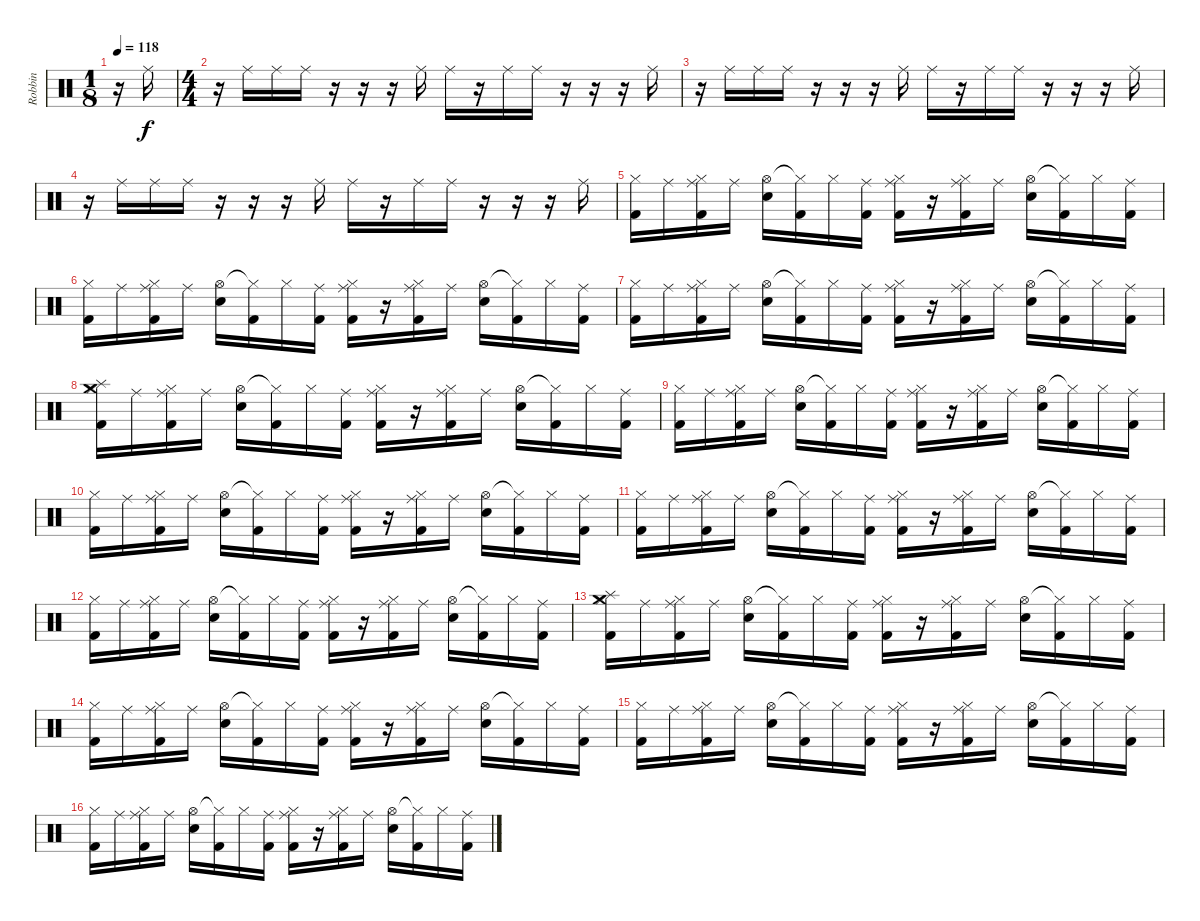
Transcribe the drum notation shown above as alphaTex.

\track ("Robbin" "Robbin") {instrument percussion}
\staff {score}
\articulation defaults
\ts (1 8)
\tempo 118
\clef neutral
\ks c
r.16{dy f} "Ride (middle)".16 |
\ts (4 4)
r.16 "Ride (middle)".16 "Ride (middle)".16 "Ride (middle)".16 r.16 r.16 r.16 "Ride (middle)".16 "Ride (middle)".16 r.16 "Ride (middle)".16 "Ride (middle)".16 r.16 r.16 r.16 "Ride (middle)".16 |
r.16 "Ride (middle)".16 "Ride (middle)".16 "Ride (middle)".16 r.16 r.16 r.16 "Ride (middle)".16 "Ride (middle)".16 r.16 "Ride (middle)".16 "Ride (middle)".16 r.16 r.16 r.16 "Ride (middle)".16 |
r.16 "Ride (middle)".16 "Ride (middle)".16 "Ride (middle)".16 r.16 r.16 r.16 "Ride (middle)".16 "Ride (middle)".16 r.16 "Ride (middle)".16 "Ride (middle)".16 r.16 r.16 r.16 "Ride (middle)".16 |
("Hi-Hat (closed)" "Kick (hit) 2").16 "Ride (middle)".16 ("Hi-Hat (closed)" "Ride (middle)" "Kick (hit) 2").16 "Ride (middle)".16 ("Hi-Hat (open)" "Snare (hit) 2").16 ("Hi-Hat (closed)"{t} "Kick (hit) 2").16 "Hi-Hat (closed)".16 ("Ride (middle)" "Kick (hit) 2").16 ("Hi-Hat (closed)" "Ride (middle)" "Kick (hit) 2").16 r.16 ("Hi-Hat (closed)" "Ride (middle)" "Kick (hit) 2").16 "Ride (middle)".16 ("Hi-Hat (open)" "Snare (hit) 2").16 ("Hi-Hat (closed)"{t} "Kick (hit) 2").16 "Hi-Hat (closed)".16 ("Ride (middle)" "Kick (hit) 2").16 |
("Hi-Hat (closed)" "Kick (hit) 2").16 "Ride (middle)".16 ("Hi-Hat (closed)" "Ride (middle)" "Kick (hit) 2").16 "Ride (middle)".16 ("Hi-Hat (open)" "Snare (hit) 2").16 ("Hi-Hat (closed)"{t} "Kick (hit) 2").16 "Hi-Hat (closed)".16 ("Ride (middle)" "Kick (hit) 2").16 ("Hi-Hat (closed)" "Ride (middle)" "Kick (hit) 2").16 r.16 ("Hi-Hat (closed)" "Ride (middle)" "Kick (hit) 2").16 "Ride (middle)".16 ("Hi-Hat (open)" "Snare (hit) 2").16 ("Hi-Hat (closed)"{t} "Kick (hit) 2").16 "Hi-Hat (closed)".16 ("Ride (middle)" "Kick (hit) 2").16 |
("Hi-Hat (closed)" "Kick (hit) 2").16 "Ride (middle)".16 ("Hi-Hat (closed)" "Ride (middle)" "Kick (hit) 2").16 "Ride (middle)".16 ("Hi-Hat (open)" "Snare (hit) 2").16 ("Hi-Hat (closed)"{t} "Kick (hit) 2").16 "Hi-Hat (closed)".16 ("Ride (middle)" "Kick (hit) 2").16 ("Hi-Hat (closed)" "Ride (middle)" "Kick (hit) 2").16 r.16 ("Hi-Hat (closed)" "Ride (middle)" "Kick (hit) 2").16 "Ride (middle)".16 ("Hi-Hat (open)" "Snare (hit) 2").16 ("Hi-Hat (closed)"{t} "Kick (hit) 2").16 "Hi-Hat (closed)".16 ("Ride (middle)" "Kick (hit) 2").16 |
("Hi-Hat (closed)" "Crash medium (hit)" "Splash (hit)" "Kick (hit) 2").16 "Ride (middle)".16 ("Hi-Hat (closed)" "Ride (middle)" "Kick (hit) 2").16 "Ride (middle)".16 ("Hi-Hat (open)" "Snare (hit) 2").16 ("Hi-Hat (closed)"{t} "Kick (hit) 2").16 "Hi-Hat (closed)".16 ("Ride (middle)" "Kick (hit) 2").16 ("Hi-Hat (closed)" "Ride (middle)" "Kick (hit) 2").16 r.16 ("Hi-Hat (closed)" "Ride (middle)" "Kick (hit) 2").16 "Ride (middle)".16 ("Hi-Hat (open)" "Snare (hit) 2").16 ("Hi-Hat (closed)"{t} "Kick (hit) 2").16 "Hi-Hat (closed)".16 ("Ride (middle)" "Kick (hit) 2").16 |
("Hi-Hat (closed)" "Kick (hit) 2").16 "Ride (middle)".16 ("Hi-Hat (closed)" "Ride (middle)" "Kick (hit) 2").16 "Ride (middle)".16 ("Hi-Hat (open)" "Snare (hit) 2").16 ("Hi-Hat (closed)"{t} "Kick (hit) 2").16 "Hi-Hat (closed)".16 ("Ride (middle)" "Kick (hit) 2").16 ("Hi-Hat (closed)" "Ride (middle)" "Kick (hit) 2").16 r.16 ("Hi-Hat (closed)" "Ride (middle)" "Kick (hit) 2").16 "Ride (middle)".16 ("Hi-Hat (open)" "Snare (hit) 2").16 ("Hi-Hat (closed)"{t} "Kick (hit) 2").16 "Hi-Hat (closed)".16 ("Ride (middle)" "Kick (hit) 2").16 |
("Hi-Hat (closed)" "Kick (hit) 2").16 "Ride (middle)".16 ("Hi-Hat (closed)" "Ride (middle)" "Kick (hit) 2").16 "Ride (middle)".16 ("Hi-Hat (open)" "Snare (hit) 2").16 ("Hi-Hat (closed)"{t} "Kick (hit) 2").16 "Hi-Hat (closed)".16 ("Ride (middle)" "Kick (hit) 2").16 ("Hi-Hat (closed)" "Ride (middle)" "Kick (hit) 2").16 r.16 ("Hi-Hat (closed)" "Ride (middle)" "Kick (hit) 2").16 "Ride (middle)".16 ("Hi-Hat (open)" "Snare (hit) 2").16 ("Hi-Hat (closed)"{t} "Kick (hit) 2").16 "Hi-Hat (closed)".16 ("Ride (middle)" "Kick (hit) 2").16 |
("Hi-Hat (closed)" "Kick (hit) 2").16 "Ride (middle)".16 ("Hi-Hat (closed)" "Ride (middle)" "Kick (hit) 2").16 "Ride (middle)".16 ("Hi-Hat (open)" "Snare (hit) 2").16 ("Hi-Hat (closed)"{t} "Kick (hit) 2").16 "Hi-Hat (closed)".16 ("Ride (middle)" "Kick (hit) 2").16 ("Hi-Hat (closed)" "Ride (middle)" "Kick (hit) 2").16 r.16 ("Hi-Hat (closed)" "Ride (middle)" "Kick (hit) 2").16 "Ride (middle)".16 ("Hi-Hat (open)" "Snare (hit) 2").16 ("Hi-Hat (closed)"{t} "Kick (hit) 2").16 "Hi-Hat (closed)".16 ("Ride (middle)" "Kick (hit) 2").16 |
("Hi-Hat (closed)" "Kick (hit) 2").16 "Ride (middle)".16 ("Hi-Hat (closed)" "Ride (middle)" "Kick (hit) 2").16 "Ride (middle)".16 ("Hi-Hat (open)" "Snare (hit) 2").16 ("Hi-Hat (closed)"{t} "Kick (hit) 2").16 "Hi-Hat (closed)".16 ("Ride (middle)" "Kick (hit) 2").16 ("Hi-Hat (closed)" "Ride (middle)" "Kick (hit) 2").16 r.16 ("Hi-Hat (closed)" "Ride (middle)" "Kick (hit) 2").16 "Ride (middle)".16 ("Hi-Hat (open)" "Snare (hit) 2").16 ("Hi-Hat (closed)"{t} "Kick (hit) 2").16 "Hi-Hat (closed)".16 ("Ride (middle)" "Kick (hit) 2").16 |
("Hi-Hat (closed)" "Crash medium (hit)" "Splash (hit)" "Kick (hit) 2").16 "Ride (middle)".16 ("Hi-Hat (closed)" "Ride (middle)" "Kick (hit) 2").16 "Ride (middle)".16 ("Hi-Hat (open)" "Snare (hit) 2").16 ("Hi-Hat (closed)"{t} "Kick (hit) 2").16 "Hi-Hat (closed)".16 ("Ride (middle)" "Kick (hit) 2").16 ("Hi-Hat (closed)" "Ride (middle)" "Kick (hit) 2").16 r.16 ("Hi-Hat (closed)" "Ride (middle)" "Kick (hit) 2").16 "Ride (middle)".16 ("Hi-Hat (open)" "Snare (hit) 2").16 ("Hi-Hat (closed)"{t} "Kick (hit) 2").16 "Hi-Hat (closed)".16 ("Ride (middle)" "Kick (hit) 2").16 |
("Hi-Hat (closed)" "Kick (hit) 2").16 "Ride (middle)".16 ("Hi-Hat (closed)" "Ride (middle)" "Kick (hit) 2").16 "Ride (middle)".16 ("Hi-Hat (open)" "Snare (hit) 2").16 ("Hi-Hat (closed)"{t} "Kick (hit) 2").16 "Hi-Hat (closed)".16 ("Ride (middle)" "Kick (hit) 2").16 ("Hi-Hat (closed)" "Ride (middle)" "Kick (hit) 2").16 r.16 ("Hi-Hat (closed)" "Ride (middle)" "Kick (hit) 2").16 "Ride (middle)".16 ("Hi-Hat (open)" "Snare (hit) 2").16 ("Hi-Hat (closed)"{t} "Kick (hit) 2").16 "Hi-Hat (closed)".16 ("Ride (middle)" "Kick (hit) 2").16 |
("Hi-Hat (closed)" "Kick (hit) 2").16 "Ride (middle)".16 ("Hi-Hat (closed)" "Ride (middle)" "Kick (hit) 2").16 "Ride (middle)".16 ("Hi-Hat (open)" "Snare (hit) 2").16 ("Hi-Hat (closed)"{t} "Kick (hit) 2").16 "Hi-Hat (closed)".16 ("Ride (middle)" "Kick (hit) 2").16 ("Hi-Hat (closed)" "Ride (middle)" "Kick (hit) 2").16 r.16 ("Hi-Hat (closed)" "Ride (middle)" "Kick (hit) 2").16 "Ride (middle)".16 ("Hi-Hat (open)" "Snare (hit) 2").16 ("Hi-Hat (closed)"{t} "Kick (hit) 2").16 "Hi-Hat (closed)".16 ("Ride (middle)" "Kick (hit) 2").16 |
("Hi-Hat (closed)" "Kick (hit) 2").16 "Ride (middle)".16 ("Hi-Hat (closed)" "Ride (middle)" "Kick (hit) 2").16 "Ride (middle)".16 ("Hi-Hat (open)" "Snare (hit) 2").16 ("Hi-Hat (closed)"{t} "Kick (hit) 2").16 "Hi-Hat (closed)".16 ("Ride (middle)" "Kick (hit) 2").16 ("Hi-Hat (closed)" "Ride (middle)" "Kick (hit) 2").16 r.16 ("Hi-Hat (closed)" "Ride (middle)" "Kick (hit) 2").16 "Ride (middle)".16 ("Hi-Hat (open)" "Snare (hit) 2").16 ("Hi-Hat (closed)"{t} "Kick (hit) 2").16 "Hi-Hat (closed)".16 ("Ride (middle)" "Kick (hit) 2").16
